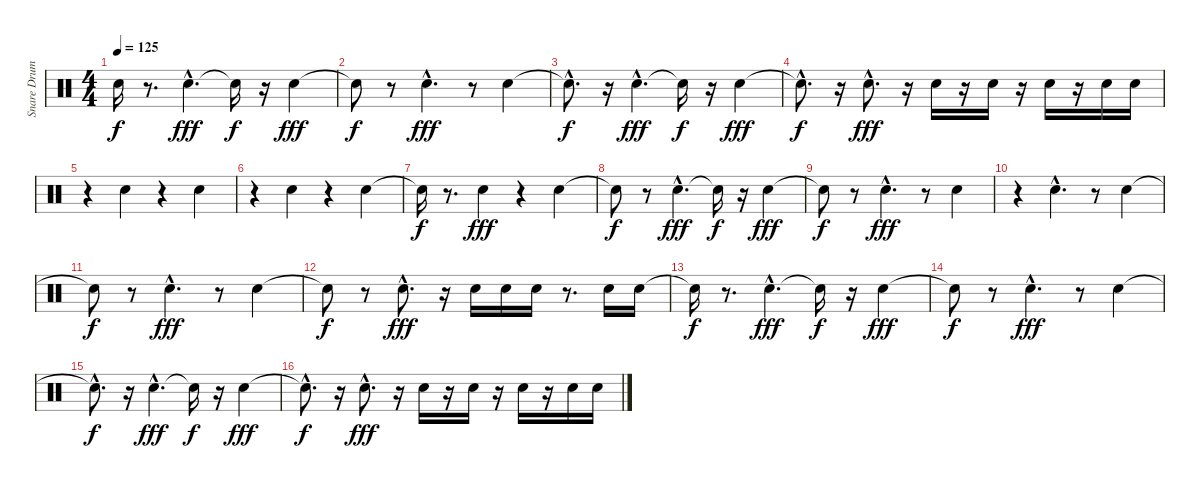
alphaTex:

\track ("Snare Drum      " "Snare Drum") {instrument percussion}
\staff {score}
\articulation defaults
\ts (4 4)
\tempo 125
\clef neutral
\ks c "Snare (hit)"{t}.16{dy f}
r.8{d} "Snare (hit) 2"{hac}.4{d dy fff} "Snare (hit)"{t}.16{dy f} r.16 "Snare (hit) 2".4{dy fff} |
"Snare (hit)"{t}.8{dy f} r.8 "Snare (hit) 2"{hac}.4{d dy fff} r.8 "Snare (hit) 2".4 |
"Snare (hit)"{hac t}.8{d dy f} r.16 "Snare (hit) 2"{hac}.4{d dy fff} "Snare (hit)"{t}.16{dy f} r.16 "Snare (hit) 2".4{dy fff} |
"Snare (hit)"{hac t}.8{d dy f} r.16 "Snare (hit) 2"{hac}.8{d dy fff} r.16 "Snare (hit) 2".16 r.16 "Snare (hit) 2".16 r.16 "Snare (hit) 2".16 r.16 "Snare (hit) 2".16 "Snare (hit) 2".16 |
r.4 "Snare (hit) 2".4 r.4 "Snare (hit) 2".4 |
r.4 "Snare (hit) 2".4 r.4 "Snare (hit) 2".4 |
"Snare (hit)"{t}.16{dy f} r.8{d} "Snare (hit) 2".4{dy fff} r.4 "Snare (hit) 2".4 |
"Snare (hit)"{t}.8{dy f} r.8 "Snare (hit) 2"{hac}.4{d dy fff} "Snare (hit)"{t}.16{dy f} r.16 "Snare (hit) 2".4{dy fff} |
"Snare (hit)"{t}.8{dy f} r.8 "Snare (hit) 2"{hac}.4{d dy fff} r.8 "Snare (hit) 2".4 |
r.4 "Snare (hit) 2"{hac}.4{d} r.8 "Snare (hit) 2".4 |
"Snare (hit)"{t}.8{dy f} r.8 "Snare (hit) 2"{hac}.4{d dy fff} r.8 "Snare (hit) 2".4 |
"Snare (hit)"{t}.8{dy f} r.8 "Snare (hit) 2"{hac}.8{d dy fff} r.16 "Snare (hit) 2".16 "Snare (hit) 2".16 "Snare (hit) 2".16 r.8{d} "Snare (hit) 2".16 "Snare (hit) 2".16 |
"Snare (hit)"{t}.16{dy f} r.8{d} "Snare (hit) 2"{hac}.4{d dy fff} "Snare (hit)"{t}.16{dy f} r.16 "Snare (hit) 2".4{dy fff} |
"Snare (hit)"{t}.8{dy f} r.8 "Snare (hit) 2"{hac}.4{d dy fff} r.8 "Snare (hit) 2".4 |
"Snare (hit)"{hac t}.8{d dy f} r.16 "Snare (hit) 2"{hac}.4{d dy fff} "Snare (hit)"{t}.16{dy f} r.16 "Snare (hit) 2".4{dy fff} |
"Snare (hit)"{hac t}.8{d dy f} r.16 "Snare (hit) 2"{hac}.8{d dy fff} r.16 "Snare (hit) 2".16 r.16 "Snare (hit) 2".16 r.16 "Snare (hit) 2".16 r.16 "Snare (hit) 2".16 "Snare (hit) 2".16
